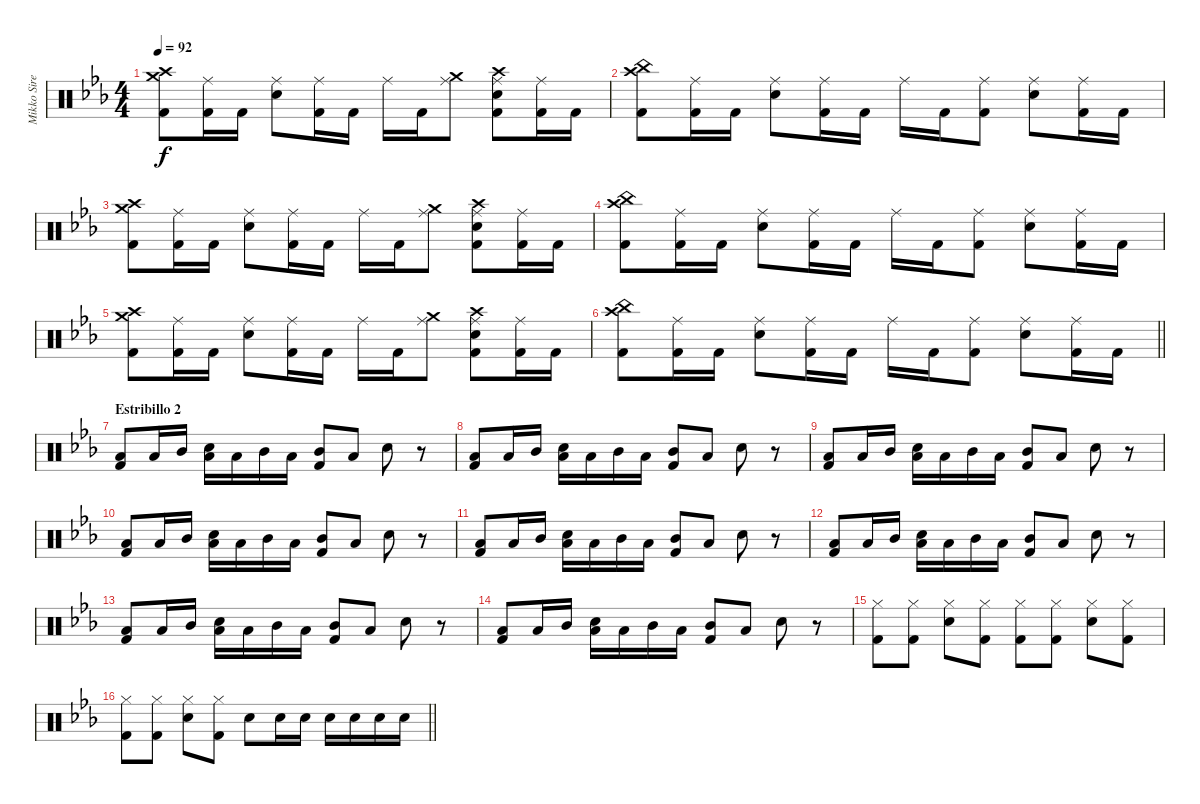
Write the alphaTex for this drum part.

\track ("Mikko Siren" "Mikko Sire") {instrument percussion}
\staff {score}
\articulation defaults
\ts (4 4)
\tempo 92
\clef neutral
\ks cminor
("Crash high (hit)" "Crash medium (hit)" "Kick (hit) 2").8{dy f} ("Ride (middle)" "Kick (hit) 2").16 "Kick (hit) 2".16 ("Ride (middle)" "Snare (hit) 2").8 ("Ride (middle)" "Kick (hit) 2").16 "Kick (hit) 2".16 "Ride (middle)".16 "Kick (hit) 2".16 ("Ride (middle)" "Crash medium (hit)").8 ("Ride (middle)" "Crash high (hit)" "Snare (hit) 2" "Kick (hit) 2").8 ("Ride (middle)" "Kick (hit) 2").16 "Kick (hit) 2".16 |
("Crash high (hit)" "China (hit)" "Kick (hit) 2").8 ("Ride (middle)" "Kick (hit) 2").16 "Kick (hit) 2".16 ("Ride (middle)" "Snare (hit) 2").8 ("Ride (middle)" "Kick (hit) 2").16 "Kick (hit) 2".16 "Ride (middle)".16 "Kick (hit) 2".16 ("Ride (middle)" "Kick (hit) 2").8 ("Ride (middle)" "Snare (hit) 2").8 ("Ride (middle)" "Kick (hit) 2").16 "Kick (hit) 2".16 |
("Crash high (hit)" "Crash medium (hit)" "Kick (hit) 2").8 ("Ride (middle)" "Kick (hit) 2").16 "Kick (hit) 2".16 ("Ride (middle)" "Snare (hit) 2").8 ("Ride (middle)" "Kick (hit) 2").16 "Kick (hit) 2".16 "Ride (middle)".16 "Kick (hit) 2".16 ("Ride (middle)" "Crash medium (hit)").8 ("Ride (middle)" "Crash high (hit)" "Snare (hit) 2" "Kick (hit) 2").8 ("Ride (middle)" "Kick (hit) 2").16 "Kick (hit) 2".16 |
("Crash high (hit)" "China (hit)" "Kick (hit) 2").8 ("Ride (middle)" "Kick (hit) 2").16 "Kick (hit) 2".16 ("Ride (middle)" "Snare (hit) 2").8 ("Ride (middle)" "Kick (hit) 2").16 "Kick (hit) 2".16 "Ride (middle)".16 "Kick (hit) 2".16 ("Ride (middle)" "Kick (hit) 2").8 ("Ride (middle)" "Snare (hit) 2").8 ("Ride (middle)" "Kick (hit) 2").16 "Kick (hit) 2".16 |
("Crash high (hit)" "Crash medium (hit)" "Kick (hit) 2").8 ("Ride (middle)" "Kick (hit) 2").16 "Kick (hit) 2".16 ("Ride (middle)" "Snare (hit) 2").8 ("Ride (middle)" "Kick (hit) 2").16 "Kick (hit) 2".16 "Ride (middle)".16 "Kick (hit) 2".16 ("Ride (middle)" "Crash medium (hit)").8 ("Ride (middle)" "Crash high (hit)" "Snare (hit) 2" "Kick (hit) 2").8 ("Ride (middle)" "Kick (hit) 2").16 "Kick (hit) 2".16 |
\barLineRight lightlight
("Crash high (hit)" "China (hit)" "Kick (hit) 2").8 ("Ride (middle)" "Kick (hit) 2").16 "Kick (hit) 2".16 ("Ride (middle)" "Snare (hit) 2").8 ("Ride (middle)" "Kick (hit) 2").16 "Kick (hit) 2".16 "Ride (middle)".16 "Kick (hit) 2".16 ("Ride (middle)" "Kick (hit) 2").8 ("Ride (middle)" "Snare (hit) 2").8 ("Ride (middle)" "Kick (hit) 2").16 "Kick (hit) 2".16 |
\section ("" "Estribillo 2")
("Low Tom (hit)" "Kick (hit) 2").8 "Low Tom (hit)".16 "Mid Tom (hit)".16 ("Low Floor Tom (hit)" "Snare (hit) 2").16 "Low Tom (hit)".16 "Mid Tom (hit)".16 "Low Tom (hit)".16 ("Mid Tom (hit)" "Kick (hit) 2").8 "Low Floor Tom (hit)".8 "Snare (hit) 2".8 r.8 |
("Low Tom (hit)" "Kick (hit) 2").8 "Low Tom (hit)".16 "Mid Tom (hit)".16 ("Low Floor Tom (hit)" "Snare (hit) 2").16 "Low Tom (hit)".16 "Mid Tom (hit)".16 "Low Tom (hit)".16 ("Mid Tom (hit)" "Kick (hit) 2").8 "Low Floor Tom (hit)".8 "Snare (hit) 2".8 r.8 |
("Low Tom (hit)" "Kick (hit) 2").8 "Low Tom (hit)".16 "Mid Tom (hit)".16 ("Low Floor Tom (hit)" "Snare (hit) 2").16 "Low Tom (hit)".16 "Mid Tom (hit)".16 "Low Tom (hit)".16 ("Mid Tom (hit)" "Kick (hit) 2").8 "Low Floor Tom (hit)".8 "Snare (hit) 2".8 r.8 |
("Low Tom (hit)" "Kick (hit) 2").8 "Low Tom (hit)".16 "Mid Tom (hit)".16 ("Low Floor Tom (hit)" "Snare (hit) 2").16 "Low Tom (hit)".16 "Mid Tom (hit)".16 "Low Tom (hit)".16 ("Mid Tom (hit)" "Kick (hit) 2").8 "Low Floor Tom (hit)".8 "Snare (hit) 2".8 r.8 |
("Low Tom (hit)" "Kick (hit) 2").8 "Low Tom (hit)".16 "Mid Tom (hit)".16 ("Low Floor Tom (hit)" "Snare (hit) 2").16 "Low Tom (hit)".16 "Mid Tom (hit)".16 "Low Tom (hit)".16 ("Mid Tom (hit)" "Kick (hit) 2").8 "Low Floor Tom (hit)".8 "Snare (hit) 2".8 r.8 |
("Low Tom (hit)" "Kick (hit) 2").8 "Low Tom (hit)".16 "Mid Tom (hit)".16 ("Low Floor Tom (hit)" "Snare (hit) 2").16 "Low Tom (hit)".16 "Mid Tom (hit)".16 "Low Tom (hit)".16 ("Mid Tom (hit)" "Kick (hit) 2").8 "Low Floor Tom (hit)".8 "Snare (hit) 2".8 r.8 |
("Low Tom (hit)" "Kick (hit) 2").8 "Low Tom (hit)".16 "Mid Tom (hit)".16 ("Low Floor Tom (hit)" "Snare (hit) 2").16 "Low Tom (hit)".16 "Mid Tom (hit)".16 "Low Tom (hit)".16 ("Mid Tom (hit)" "Kick (hit) 2").8 "Low Floor Tom (hit)".8 "Snare (hit) 2".8 r.8 |
("Low Tom (hit)" "Kick (hit) 2").8 "Low Tom (hit)".16 "Mid Tom (hit)".16 ("Low Floor Tom (hit)" "Snare (hit) 2").16 "Low Tom (hit)".16 "Mid Tom (hit)".16 "Low Tom (hit)".16 ("Mid Tom (hit)" "Kick (hit) 2").8 "Low Floor Tom (hit)".8 "Snare (hit) 2".8 r.8 |
("Hi-Hat (closed)" "Kick (hit) 2").8 ("Hi-Hat (closed)" "Kick (hit) 2").8 ("Hi-Hat (closed)" "Snare (hit) 2").8 ("Hi-Hat (closed)" "Kick (hit) 2").8 ("Hi-Hat (closed)" "Kick (hit) 2").8 ("Hi-Hat (closed)" "Kick (hit) 2").8 ("Hi-Hat (closed)" "Snare (hit) 2").8 ("Hi-Hat (closed)" "Kick (hit) 2").8 |
\barLineRight lightlight
("Hi-Hat (closed)" "Kick (hit) 2").8 ("Hi-Hat (closed)" "Kick (hit) 2").8 ("Hi-Hat (closed)" "Snare (hit) 2").8 ("Hi-Hat (closed)" "Kick (hit) 2").8 "Snare (hit) 2".8 "Snare (hit) 2".16 "Snare (hit) 2".16 "Snare (hit) 2".16 "Snare (hit) 2".16 "Snare (hit) 2".16 "Snare (hit) 2".16
